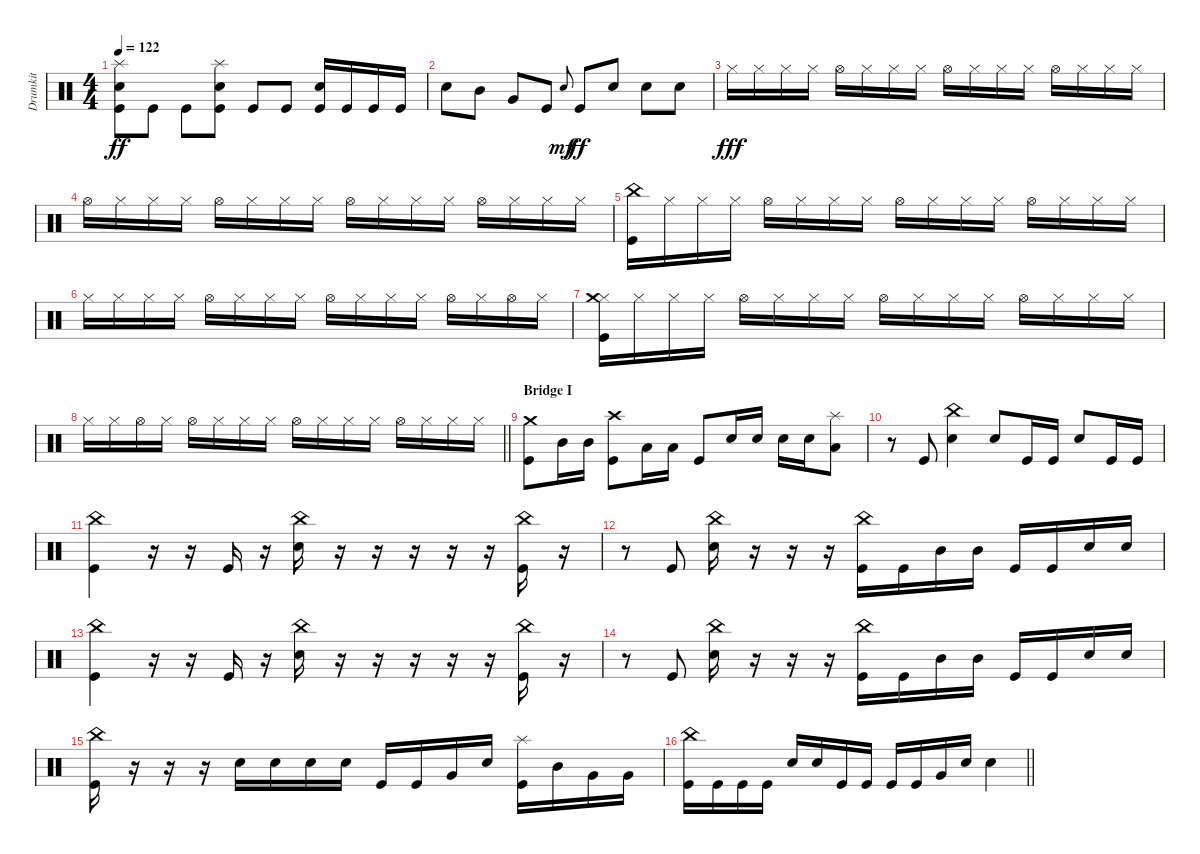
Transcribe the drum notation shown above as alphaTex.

\track ("Drumkit" "Drumkit") {instrument percussion}
\staff {score}
\articulation defaults
\ts (4 4)
\tempo 122
\clef neutral
\ks c
("Kick (hit)" "Snare (hit) 2" "Splash (hit)").8{dy ff} "Kick (hit)".8 "Kick (hit)".8 ("Kick (hit)" "Splash (hit)" "Snare (hit) 2").8 "Kick (hit)".8 "Kick (hit)".8 ("Kick (hit)" "Snare (hit) 2").16 "Kick (hit)".16 "Kick (hit)".16 "Kick (hit)".16 |
"Snare (hit) 2".8 "Mid Tom (hit)".8 "Very Low Tom (hit)".8 "Kick (hit)".8 "Snare (hit)".8{gr onbeat dy mf} "Kick (hit)".8{dy ff} "Snare (hit) 2".8 "Snare (hit) 2".8 "Snare (hit) 2".8 |
"Hi-Hat (closed)".16{dy fff} "Hi-Hat (closed)".16 "Hi-Hat (closed)".16 "Hi-Hat (closed)".16 "Hi-Hat (open)".16 "Hi-Hat (closed)".16 "Hi-Hat (closed)".16 "Hi-Hat (closed)".16 "Hi-Hat (open)".16 "Hi-Hat (closed)".16 "Hi-Hat (closed)".16 "Hi-Hat (closed)".16 "Hi-Hat (open)".16 "Hi-Hat (closed)".16 "Hi-Hat (closed)".16 "Hi-Hat (closed)".16 |
"Hi-Hat (open)".16 "Hi-Hat (closed)".16 "Hi-Hat (closed)".16 "Hi-Hat (closed)".16 "Hi-Hat (open)".16 "Hi-Hat (closed)".16 "Hi-Hat (closed)".16 "Hi-Hat (closed)".16 "Hi-Hat (open)".16 "Hi-Hat (closed)".16 "Hi-Hat (closed)".16 "Hi-Hat (closed)".16 "Hi-Hat (open)".16 "Hi-Hat (closed)".16 "Hi-Hat (closed)".16 "Hi-Hat (closed)".16 |
("China (hit)" "Kick (hit)").16 "Hi-Hat (closed)".16 "Hi-Hat (closed)".16 "Hi-Hat (closed)".16 "Hi-Hat (open)".16 "Hi-Hat (closed)".16 "Hi-Hat (closed)".16 "Hi-Hat (closed)".16 "Hi-Hat (open)".16 "Hi-Hat (closed)".16 "Hi-Hat (closed)".16 "Hi-Hat (closed)".16 "Hi-Hat (open)".16 "Hi-Hat (closed)".16 "Hi-Hat (closed)".16 "Hi-Hat (closed)".16 |
"Hi-Hat (closed)".16 "Hi-Hat (closed)".16 "Hi-Hat (closed)".16 "Hi-Hat (closed)".16 "Hi-Hat (open)".16 "Hi-Hat (closed)".16 "Hi-Hat (closed)".16 "Hi-Hat (closed)".16 "Hi-Hat (open)".16 "Hi-Hat (closed)".16 "Hi-Hat (closed)".16 "Hi-Hat (closed)".16 "Hi-Hat (open)".16 "Hi-Hat (closed)".16 "Hi-Hat (open)".16 "Hi-Hat (closed)".16 |
("Hi-Hat (closed)" "Crash medium (hit)" "Kick (hit)").16 "Hi-Hat (closed)".16 "Hi-Hat (closed)".16 "Hi-Hat (closed)".16 "Hi-Hat (open)".16 "Hi-Hat (closed)".16 "Hi-Hat (closed)".16 "Hi-Hat (closed)".16 "Hi-Hat (open)".16 "Hi-Hat (closed)".16 "Hi-Hat (closed)".16 "Hi-Hat (closed)".16 "Hi-Hat (open)".16 "Hi-Hat (closed)".16 "Hi-Hat (closed)".16 "Hi-Hat (closed)".16 |
\barLineRight lightlight "Hi-Hat (closed)".16 "Hi-Hat (closed)".16 "Hi-Hat (open)".16 "Hi-Hat (closed)".16 "Hi-Hat (open)".16 "Hi-Hat (closed)".16 "Hi-Hat (closed)".16 "Hi-Hat (closed)".16 "Hi-Hat (open)".16 "Hi-Hat (closed)".16 "Hi-Hat (closed)".16 "Hi-Hat (closed)".16 "Hi-Hat (open)".16 "Hi-Hat (closed)".16 "Hi-Hat (closed)".16 "Hi-Hat (closed)".16
|
\section ("" "Bridge I")
("Kick (hit)" "Crash medium (hit)").8 "Mid Tom (hit)".16 "Mid Tom (hit)".16 ("Kick (hit)" "Crash high (hit)").8 "Low Tom (hit)".16 "Low Tom (hit)".16 "Kick (hit)".8 "Snare (hit) 2".16 "Snare (hit) 2".16 "Snare (hit) 2".16 "Snare (hit) 2".16 ("Low Floor Tom (hit)" "Splash (hit)").8 |
r.8 "Kick (hit)".8 ("Snare (hit) 2" "China (hit)").4 "Snare (hit) 2".8 "Kick (hit)".16 "Kick (hit)".16 "Snare (hit) 2".8 "Kick (hit)".16 "Kick (hit)".16 |
("Kick (hit)" "China (hit)").4 r.16 r.16 "Kick (hit)".16 r.16 ("China (hit)" "Snare (hit) 2").16 r.16 r.16 r.16 r.16 r.16 ("Kick (hit)" "China (hit)").16 r.16 |
r.8 "Kick (hit)".8 ("Snare (hit) 2" "China (hit)").16 r.16 r.16 r.16 ("Kick (hit)" "China (hit)").16 "Kick (hit)".16 "Mid Tom (hit)".16 "Mid Tom (hit)".16 "Kick (hit)".16 "Kick (hit)".16 "Snare (hit) 2".16 "Snare (hit) 2".16 |
("Kick (hit)" "China (hit)").4 r.16 r.16 "Kick (hit)".16 r.16 ("China (hit)" "Snare (hit) 2").16 r.16 r.16 r.16 r.16 r.16 ("Kick (hit)" "China (hit)").16 r.16 |
r.8 "Kick (hit)".8 ("Snare (hit) 2" "China (hit)").16 r.16 r.16 r.16 ("Kick (hit)" "China (hit)").16 "Kick (hit)".16 "Mid Tom (hit)".16 "Mid Tom (hit)".16 "Kick (hit)".16 "Kick (hit)".16 "Snare (hit) 2".16 "Snare (hit) 2".16 |
("Kick (hit)" "China (hit)").16 r.16 r.16 r.16 "Snare (hit) 2".16 "Snare (hit) 2".16 "Snare (hit) 2".16 "Snare (hit) 2".16 "Kick (hit)".16 "Kick (hit)".16 "Very Low Tom (hit)".16 "Snare (hit) 2".16 ("Kick (hit)" "Splash (hit)").16 "Mid Tom (hit)".16 "Very Low Tom (hit)".16 "Very Low Tom (hit)".16 |
\barLineRight lightlight
("Kick (hit)" "China (hit)").16 "Kick (hit)".16 "Kick (hit)".16 "Kick (hit)".16 "Snare (hit) 2".16 "Snare (hit) 2".16 "Kick (hit)".16 "Kick (hit)".16 "Kick (hit)".16 "Kick (hit)".16 "Very Low Tom (hit)".16 "Snare (hit) 2".16 "Snare (hit) 2".4
